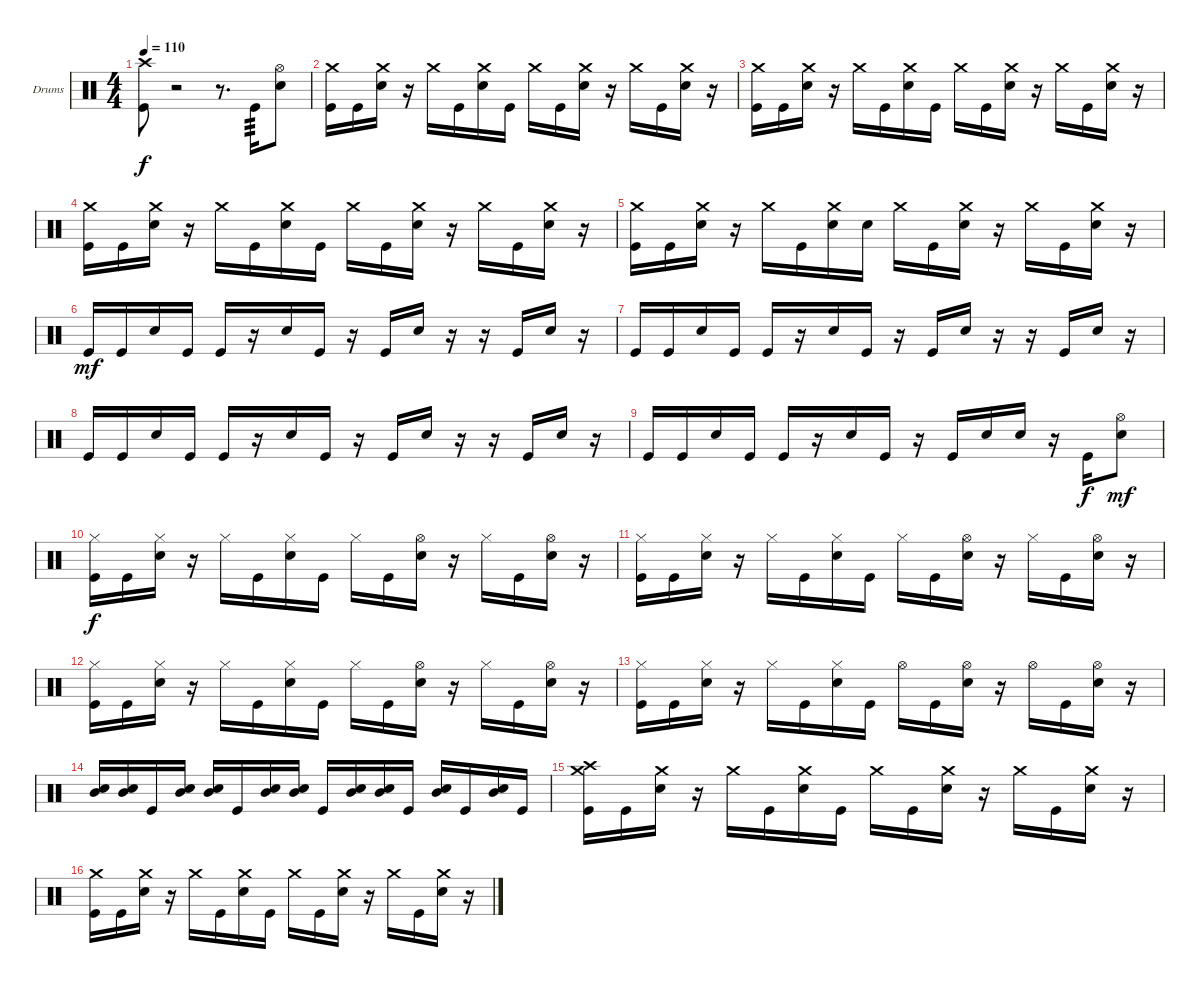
\bracketExtendMode groupsimilarinstruments
\firstSystemTrackNameOrientation horizontal
\otherSystemsTrackNameOrientation horizontal
\track ("Drumkit" "Drums") {instrument percussion}
\staff {score}
\articulation defaults
\ts (4 4)
\tempo 110
\clef neutral
\ks c
("Crash high (hit)" "Kick (hit)").8{dy f} r.2 r.8{d} "Kick (hit)".16{tp 3} ("Hi-Hat (open)" "Snare (hit) 2").8 |
("Crash medium (hit)" "Kick (hit)").16 "Kick (hit)".16 ("Crash medium (hit)" "Snare (hit) 2").16 r.16 "Crash medium (hit)".16 "Kick (hit)".16 ("Crash medium (hit)" "Snare (hit) 2").16 "Kick (hit)".16 "Crash medium (hit)".16 "Kick (hit)".16 ("Crash medium (hit)" "Snare (hit) 2").16 r.16 "Crash medium (hit)".16 "Kick (hit)".16 ("Crash medium (hit)" "Snare (hit) 2").16 r.16 |
("Crash medium (hit)" "Kick (hit)").16 "Kick (hit)".16 ("Crash medium (hit)" "Snare (hit) 2").16 r.16 "Crash medium (hit)".16 "Kick (hit)".16 ("Crash medium (hit)" "Snare (hit) 2").16 "Kick (hit)".16 "Crash medium (hit)".16 "Kick (hit)".16 ("Crash medium (hit)" "Snare (hit) 2").16 r.16 "Crash medium (hit)".16 "Kick (hit)".16 ("Crash medium (hit)" "Snare (hit) 2").16 r.16 |
("Crash medium (hit)" "Kick (hit)").16 "Kick (hit)".16 ("Crash medium (hit)" "Snare (hit) 2").16 r.16 "Crash medium (hit)".16 "Kick (hit)".16 ("Crash medium (hit)" "Snare (hit) 2").16 "Kick (hit)".16 "Crash medium (hit)".16 "Kick (hit)".16 ("Crash medium (hit)" "Snare (hit) 2").16 r.16 "Crash medium (hit)".16 "Kick (hit)".16 ("Crash medium (hit)" "Snare (hit) 2").16 r.16 |
("Crash medium (hit)" "Kick (hit)").16 "Kick (hit)".16 ("Crash medium (hit)" "Snare (hit) 2").16 r.16 "Crash medium (hit)".16 "Kick (hit)".16 ("Crash medium (hit)" "Snare (hit) 2").16 "Snare (hit) 2".16 "Crash medium (hit)".16 "Kick (hit)".16 ("Crash medium (hit)" "Snare (hit) 2").16 r.16 "Crash medium (hit)".16 "Kick (hit)".16 ("Crash medium (hit)" "Snare (hit) 2").16 r.16 |
"Kick (hit)".16{dy mf} "Kick (hit)".16 "Snare (hit) 2".16 "Kick (hit)".16 "Kick (hit)".16 r.16 "Snare (hit) 2".16 "Kick (hit)".16 r.16 "Kick (hit)".16 "Snare (hit) 2".16 r.16 r.16 "Kick (hit)".16 "Snare (hit) 2".16 r.16 |
"Kick (hit)".16 "Kick (hit)".16 "Snare (hit) 2".16 "Kick (hit)".16 "Kick (hit)".16 r.16 "Snare (hit) 2".16 "Kick (hit)".16 r.16 "Kick (hit)".16 "Snare (hit) 2".16 r.16 r.16 "Kick (hit)".16 "Snare (hit) 2".16 r.16 |
"Kick (hit)".16 "Kick (hit)".16 "Snare (hit) 2".16 "Kick (hit)".16 "Kick (hit)".16 r.16 "Snare (hit) 2".16 "Kick (hit)".16 r.16 "Kick (hit)".16 "Snare (hit) 2".16 r.16 r.16 "Kick (hit)".16 "Snare (hit) 2".16 r.16 |
"Kick (hit)".16 "Kick (hit)".16 "Snare (hit) 2".16 "Kick (hit)".16 "Kick (hit)".16 r.16 "Snare (hit) 2".16 "Kick (hit)".16 r.16 "Kick (hit)".16 "Snare (hit) 2".16 "Snare (hit) 2".16 r.16 "Kick (hit)".16{dy f} ("Hi-Hat (open)" "Snare (hit) 2").8{dy mf} |
("Hi-Hat (closed)" "Kick (hit)").16{dy f} "Kick (hit)".16 ("Hi-Hat (closed)" "Snare (hit) 2").16 r.16 "Hi-Hat (closed)".16 "Kick (hit)".16 ("Hi-Hat (closed)" "Snare (hit) 2").16 "Kick (hit)".16 "Hi-Hat (closed)".16 "Kick (hit)".16 ("Hi-Hat (open)" "Snare (hit) 2").16 r.16 "Hi-Hat (closed)".16 "Kick (hit)".16 ("Hi-Hat (open)" "Snare (hit) 2").16 r.16 |
("Hi-Hat (closed)" "Kick (hit)").16 "Kick (hit)".16 ("Hi-Hat (closed)" "Snare (hit) 2").16 r.16 "Hi-Hat (closed)".16 "Kick (hit)".16 ("Hi-Hat (closed)" "Snare (hit) 2").16 "Kick (hit)".16 "Hi-Hat (closed)".16 "Kick (hit)".16 ("Hi-Hat (open)" "Snare (hit) 2").16 r.16 "Hi-Hat (closed)".16 "Kick (hit)".16 ("Hi-Hat (open)" "Snare (hit) 2").16 r.16 |
("Hi-Hat (closed)" "Kick (hit)").16 "Kick (hit)".16 ("Hi-Hat (closed)" "Snare (hit) 2").16 r.16 "Hi-Hat (closed)".16 "Kick (hit)".16 ("Hi-Hat (closed)" "Snare (hit) 2").16 "Kick (hit)".16 "Hi-Hat (closed)".16 "Kick (hit)".16 ("Hi-Hat (open)" "Snare (hit) 2").16 r.16 "Hi-Hat (closed)".16 "Kick (hit)".16 ("Hi-Hat (open)" "Snare (hit) 2").16 r.16 |
("Hi-Hat (closed)" "Kick (hit)").16 "Kick (hit)".16 ("Hi-Hat (closed)" "Snare (hit) 2").16 r.16 "Hi-Hat (closed)".16 "Kick (hit)".16 ("Hi-Hat (closed)" "Snare (hit) 2").16 "Kick (hit)".16 "Hi-Hat (open)".16 "Kick (hit)".16 ("Hi-Hat (open)" "Snare (hit) 2").16 r.16 "Hi-Hat (open)".16 "Kick (hit)".16 ("Hi-Hat (open)" "Snare (hit) 2").16 r.16 |
("Snare (hit) 2" "Mid Tom (hit)").16 ("Snare (hit) 2" "Mid Tom (hit)").16 "Kick (hit)".16 ("Snare (hit) 2" "Mid Tom (hit)").16 ("Snare (hit) 2" "Mid Tom (hit)").16 "Kick (hit)".16 ("Snare (hit) 2" "Mid Tom (hit)").16 ("Snare (hit) 2" "Mid Tom (hit)").16 "Kick (hit)".16 ("Snare (hit) 2" "Mid Tom (hit)").16 ("Snare (hit) 2" "Mid Tom (hit)").16 "Kick (hit)".16 ("Snare (hit) 2" "Mid Tom (hit)").16 "Kick (hit)".16 ("Snare (hit) 2" "Mid Tom (hit)").16 "Kick (hit)".16 |
("Crash high (hit)" "Crash medium (hit)" "Kick (hit)").16 "Kick (hit)".16 ("Crash medium (hit)" "Snare (hit) 2").16 r.16 "Crash medium (hit)".16 "Kick (hit)".16 ("Crash medium (hit)" "Snare (hit) 2").16 "Kick (hit)".16 "Crash medium (hit)".16 "Kick (hit)".16 ("Crash medium (hit)" "Snare (hit) 2").16 r.16 "Crash medium (hit)".16 "Kick (hit)".16 ("Crash medium (hit)" "Snare (hit) 2").16 r.16 |
("Crash medium (hit)" "Kick (hit)").16 "Kick (hit)".16 ("Crash medium (hit)" "Snare (hit) 2").16 r.16 "Crash medium (hit)".16 "Kick (hit)".16 ("Crash medium (hit)" "Snare (hit) 2").16 "Kick (hit)".16 "Crash medium (hit)".16 "Kick (hit)".16 ("Crash medium (hit)" "Snare (hit) 2").16 r.16 "Crash medium (hit)".16 "Kick (hit)".16 ("Crash medium (hit)" "Snare (hit) 2").16 r.16
